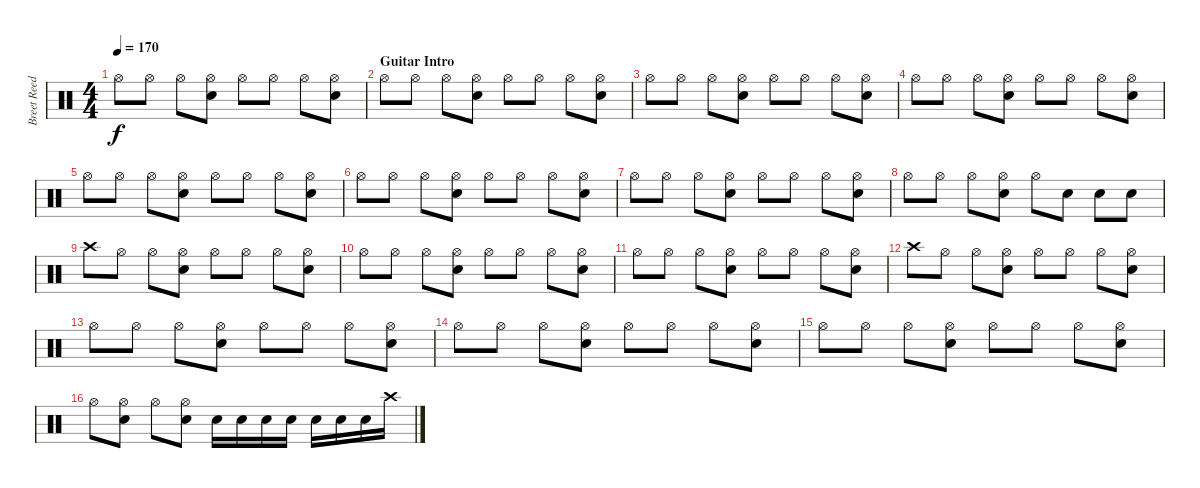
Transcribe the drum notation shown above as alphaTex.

\track ("Breet Reed" "Breet Reed") {instrument percussion}
\staff {score}
\articulation defaults
\ts (4 4)
\tempo 170
\clef neutral
\ks c "Hi-Hat (open)".8{dy f} "Hi-Hat (open)".8 "Hi-Hat (open)".8
("Snare (hit) 2" "Hi-Hat (open)").8 "Hi-Hat (open)".8 "Hi-Hat (open)".8 "Hi-Hat (open)".8 ("Snare (hit) 2" "Hi-Hat (open)").8 |
\section ("" "Guitar Intro")
"Hi-Hat (open)".8 "Hi-Hat (open)".8 "Hi-Hat (open)".8 ("Snare (hit) 2" "Hi-Hat (open)").8 "Hi-Hat (open)".8 "Hi-Hat (open)".8 "Hi-Hat (open)".8 ("Snare (hit) 2" "Hi-Hat (open)").8 |
"Hi-Hat (open)".8 "Hi-Hat (open)".8 "Hi-Hat (open)".8 ("Snare (hit) 2" "Hi-Hat (open)").8 "Hi-Hat (open)".8 "Hi-Hat (open)".8 "Hi-Hat (open)".8 ("Snare (hit) 2" "Hi-Hat (open)").8 |
"Hi-Hat (open)".8 "Hi-Hat (open)".8 "Hi-Hat (open)".8 ("Snare (hit) 2" "Hi-Hat (open)").8 "Hi-Hat (open)".8 "Hi-Hat (open)".8 "Hi-Hat (open)".8 ("Snare (hit) 2" "Hi-Hat (open)").8 |
"Hi-Hat (open)".8 "Hi-Hat (open)".8 "Hi-Hat (open)".8 ("Snare (hit) 2" "Hi-Hat (open)").8 "Hi-Hat (open)".8 "Hi-Hat (open)".8 "Hi-Hat (open)".8 ("Snare (hit) 2" "Hi-Hat (open)").8 |
"Hi-Hat (open)".8 "Hi-Hat (open)".8 "Hi-Hat (open)".8 ("Snare (hit) 2" "Hi-Hat (open)").8 "Hi-Hat (open)".8 "Hi-Hat (open)".8 "Hi-Hat (open)".8 ("Snare (hit) 2" "Hi-Hat (open)").8 |
"Hi-Hat (open)".8 "Hi-Hat (open)".8 "Hi-Hat (open)".8 ("Snare (hit) 2" "Hi-Hat (open)").8 "Hi-Hat (open)".8 "Hi-Hat (open)".8 "Hi-Hat (open)".8 ("Snare (hit) 2" "Hi-Hat (open)").8 |
"Hi-Hat (open)".8 "Hi-Hat (open)".8 "Hi-Hat (open)".8 ("Snare (hit) 2" "Hi-Hat (open)").8 "Hi-Hat (open)".8 "Snare (hit) 2".8 "Snare (hit) 2".8 "Snare (hit) 2".8 |
"Crash high (hit)".8 "Hi-Hat (open)".8 "Hi-Hat (open)".8 ("Snare (hit) 2" "Hi-Hat (open)").8 "Hi-Hat (open)".8 "Hi-Hat (open)".8 "Hi-Hat (open)".8 ("Snare (hit) 2" "Hi-Hat (open)").8 |
"Hi-Hat (open)".8 "Hi-Hat (open)".8 "Hi-Hat (open)".8 ("Snare (hit) 2" "Hi-Hat (open)").8 "Hi-Hat (open)".8 "Hi-Hat (open)".8 "Hi-Hat (open)".8 ("Snare (hit) 2" "Hi-Hat (open)").8 |
"Hi-Hat (open)".8 "Hi-Hat (open)".8 "Hi-Hat (open)".8 ("Snare (hit) 2" "Hi-Hat (open)").8 "Hi-Hat (open)".8 "Hi-Hat (open)".8 "Hi-Hat (open)".8 ("Snare (hit) 2" "Hi-Hat (open)").8 |
"Crash high (hit)".8 "Hi-Hat (open)".8 "Hi-Hat (open)".8 ("Snare (hit) 2" "Hi-Hat (open)").8 "Hi-Hat (open)".8 "Hi-Hat (open)".8 "Hi-Hat (open)".8 ("Snare (hit) 2" "Hi-Hat (open)").8 |
"Hi-Hat (open)".8 "Hi-Hat (open)".8 "Hi-Hat (open)".8 ("Snare (hit) 2" "Hi-Hat (open)").8 "Hi-Hat (open)".8 "Hi-Hat (open)".8 "Hi-Hat (open)".8 ("Snare (hit) 2" "Hi-Hat (open)").8 |
"Hi-Hat (open)".8 "Hi-Hat (open)".8 "Hi-Hat (open)".8 ("Snare (hit) 2" "Hi-Hat (open)").8 "Hi-Hat (open)".8 "Hi-Hat (open)".8 "Hi-Hat (open)".8 ("Snare (hit) 2" "Hi-Hat (open)").8 |
"Hi-Hat (open)".8 "Hi-Hat (open)".8 "Hi-Hat (open)".8 ("Snare (hit) 2" "Hi-Hat (open)").8 "Hi-Hat (open)".8 "Hi-Hat (open)".8 "Hi-Hat (open)".8 ("Snare (hit) 2" "Hi-Hat (open)").8 |
"Hi-Hat (open)".8 ("Snare (hit) 2" "Hi-Hat (open)").8 "Hi-Hat (open)".8 ("Snare (hit) 2" "Hi-Hat (open)").8 "Snare (hit) 2".16 "Snare (hit) 2".16 "Snare (hit) 2".16 "Snare (hit) 2".16 "Snare (hit) 2".16 "Snare (hit) 2".16 "Snare (hit) 2".16 "Crash high (hit)".16
